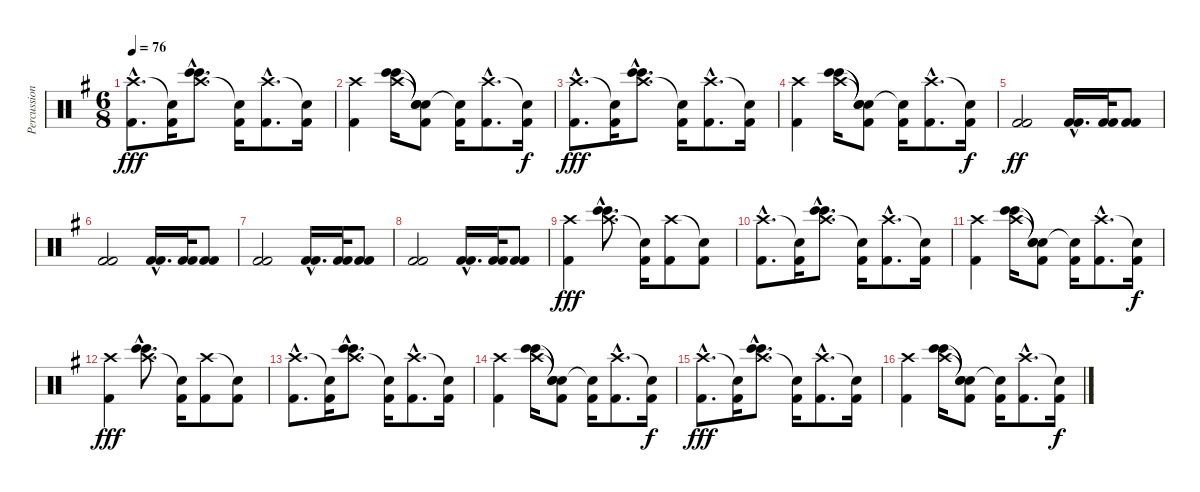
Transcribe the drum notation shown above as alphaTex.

\track ("Percussions 1" "Percussion") {instrument percussion}
\staff {score}
\articulation defaults
\ts (6 8)
\tempo 76
\clef neutral
\ks g
("Crash high (hit)"{hac} "Kick (hit) 2"{hac}).8{d dy fff} ("Snare (hit)"{t} "Kick (hit) 2").16 ("Crash high (hit)"{hac} "Bongo High (hit)"{hac} "Bongo High (hit)"{hac}).8{d} ("Snare (hit)"{t} "Kick (hit) 2").16 ("Crash high (hit)"{hac} "Kick (hit) 2"{hac}).8{d} ("Snare (hit)"{t} "Kick (hit) 2").16 |
("Crash high (hit)" "Kick (hit) 2").4 ("Crash high (hit)" "Bongo High (hit)" "Bongo High (hit)").16 ("Snare (hit)"{t} "Snare (hit)"{t} "Snare (hit)"{t} "Kick (hit) 2").8 ("Snare (hit)"{t} "Kick (hit) 2").16 ("Crash high (hit)"{hac} "Kick (hit) 2"{hac}).8{d} ("Snare (hit)"{t} "Kick (hit) 2").16{dy f} |
("Crash high (hit)"{hac} "Kick (hit) 2"{hac}).8{d dy fff} ("Snare (hit)"{t} "Kick (hit) 2").16 ("Crash high (hit)"{hac} "Bongo High (hit)"{hac} "Bongo High (hit)"{hac}).8{d} ("Snare (hit)"{t} "Kick (hit) 2").16 ("Crash high (hit)"{hac} "Kick (hit) 2"{hac}).8{d} ("Snare (hit)"{t} "Kick (hit) 2").16 |
("Crash high (hit)" "Kick (hit) 2").4 ("Crash high (hit)" "Bongo High (hit)" "Bongo High (hit)").16 ("Snare (hit)"{t} "Snare (hit)"{t} "Snare (hit)"{t} "Kick (hit) 2").8 ("Snare (hit)"{t} "Kick (hit) 2").16 ("Crash high (hit)"{hac} "Kick (hit) 2"{hac}).8{d} ("Snare (hit)"{t} "Kick (hit) 2").16{dy f} |
("Kick (hit) 2" "Kick (hit) 2").2{dy ff} ("Kick (hit) 2"{hac} "Kick (hit) 2"{hac}).16{d} ("Kick (hit) 2" "Kick (hit) 2").32 ("Kick (hit) 2" "Kick (hit) 2").8 |
("Kick (hit) 2" "Kick (hit) 2").2 ("Kick (hit) 2"{hac} "Kick (hit) 2"{hac}).16{d} ("Kick (hit) 2" "Kick (hit) 2").32 ("Kick (hit) 2" "Kick (hit) 2").8 |
("Kick (hit) 2" "Kick (hit) 2").2 ("Kick (hit) 2"{hac} "Kick (hit) 2"{hac}).16{d} ("Kick (hit) 2" "Kick (hit) 2").32 ("Kick (hit) 2" "Kick (hit) 2").8 |
("Kick (hit) 2" "Kick (hit) 2").2 ("Kick (hit) 2"{hac} "Kick (hit) 2"{hac}).16{d} ("Kick (hit) 2" "Kick (hit) 2").32 ("Kick (hit) 2" "Kick (hit) 2").8 |
("Crash high (hit)" "Kick (hit) 2").4{dy fff} ("Crash high (hit)"{hac} "Bongo High (hit)"{hac} "Bongo High (hit)"{hac}).8{d} ("Snare (hit)"{t} "Kick (hit) 2").16 ("Crash high (hit)" "Kick (hit) 2").8 ("Snare (hit)"{t} "Kick (hit) 2").8 |
("Crash high (hit)"{hac} "Kick (hit) 2"{hac}).8{d} ("Snare (hit)"{t} "Kick (hit) 2").16 ("Crash high (hit)"{hac} "Bongo High (hit)"{hac} "Bongo High (hit)"{hac}).8{d} ("Snare (hit)"{t} "Kick (hit) 2").16 ("Crash high (hit)"{hac} "Kick (hit) 2"{hac}).8{d} ("Snare (hit)"{t} "Kick (hit) 2").16 |
("Crash high (hit)" "Kick (hit) 2").4 ("Crash high (hit)" "Bongo High (hit)" "Bongo High (hit)").16 ("Snare (hit)"{t} "Snare (hit)"{t} "Snare (hit)"{t} "Kick (hit) 2").8 ("Snare (hit)"{t} "Kick (hit) 2").16 ("Crash high (hit)"{hac} "Kick (hit) 2"{hac}).8{d} ("Snare (hit)"{t} "Kick (hit) 2").16{dy f} |
("Crash high (hit)" "Kick (hit) 2").4{dy fff} ("Crash high (hit)"{hac} "Bongo High (hit)"{hac} "Bongo High (hit)"{hac}).8{d} ("Snare (hit)"{t} "Kick (hit) 2").16 ("Crash high (hit)" "Kick (hit) 2").8 ("Snare (hit)"{t} "Kick (hit) 2").8 |
("Crash high (hit)"{hac} "Kick (hit) 2"{hac}).8{d} ("Snare (hit)"{t} "Kick (hit) 2").16 ("Crash high (hit)"{hac} "Bongo High (hit)"{hac} "Bongo High (hit)"{hac}).8{d} ("Snare (hit)"{t} "Kick (hit) 2").16 ("Crash high (hit)"{hac} "Kick (hit) 2"{hac}).8{d} ("Snare (hit)"{t} "Kick (hit) 2").16 |
("Crash high (hit)" "Kick (hit) 2").4 ("Crash high (hit)" "Bongo High (hit)" "Bongo High (hit)").16 ("Snare (hit)"{t} "Snare (hit)"{t} "Snare (hit)"{t} "Kick (hit) 2").8 ("Snare (hit)"{t} "Kick (hit) 2").16 ("Crash high (hit)"{hac} "Kick (hit) 2"{hac}).8{d} ("Snare (hit)"{t} "Kick (hit) 2").16{dy f} |
("Crash high (hit)"{hac} "Kick (hit) 2"{hac}).8{d dy fff} ("Snare (hit)"{t} "Kick (hit) 2").16 ("Crash high (hit)"{hac} "Bongo High (hit)"{hac} "Bongo High (hit)"{hac}).8{d} ("Snare (hit)"{t} "Kick (hit) 2").16 ("Crash high (hit)"{hac} "Kick (hit) 2"{hac}).8{d} ("Snare (hit)"{t} "Kick (hit) 2").16 |
("Crash high (hit)" "Kick (hit) 2").4 ("Crash high (hit)" "Bongo High (hit)" "Bongo High (hit)").16 ("Snare (hit)"{t} "Snare (hit)"{t} "Snare (hit)"{t} "Kick (hit) 2").8 ("Snare (hit)"{t} "Kick (hit) 2").16 ("Crash high (hit)"{hac} "Kick (hit) 2"{hac}).8{d} ("Snare (hit)"{t} "Kick (hit) 2").16{dy f}
